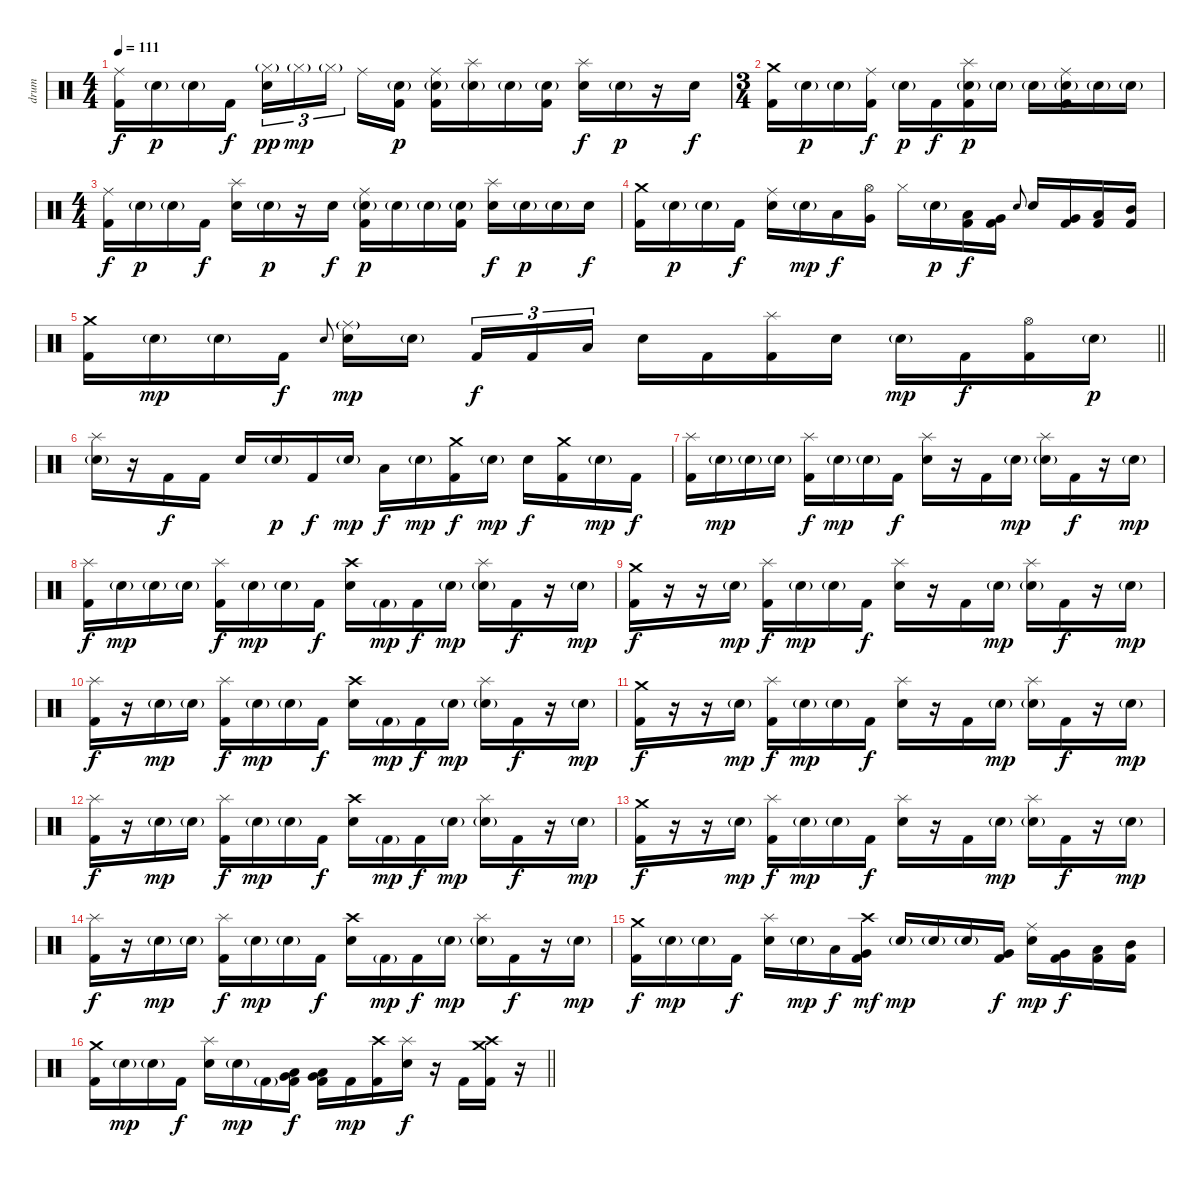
\track ("drum" "drum") {instrument percussion}
\staff {score}
\articulation defaults
\ts (4 4)
\tempo 111
\clef neutral
\ks c
("Ride (middle)" "Kick (hit) 2").16{dy f} "Electric Snare (hit)"{g}.16{dy p} "Electric Snare (hit)"{g}.16 "Kick (hit) 2".16{dy f} ("Hi-Hat (closed)"{g} "Electric Snare (hit)").16{tu (3 2) dy pp} "Hi-Hat (closed)"{g}.16{tu (3 2) dy mp} "Hi-Hat (closed)"{g}.16{tu (3 2) beam splitsecondary} "Ride (middle)".16 ("Electric Snare (hit)"{g} "Kick (hit) 2").16{dy p} ("Ride (middle)" "Electric Snare (hit)"{g} "Kick (hit) 2").16 ("Splash (hit)" "Electric Snare (hit)"{g}).16 "Electric Snare (hit)"{g}.16 ("Electric Snare (hit)"{g} "Kick (hit) 2").16 ("Splash (hit)" "Electric Snare (hit)").16{dy f} "Electric Snare (hit)"{g}.16{dy p} r.16 "Electric Snare (hit)".16{dy f} |
\ts (3 4)
("Crash medium (hit)" "Kick (hit) 2").16 "Electric Snare (hit)"{g}.16{dy p} "Electric Snare (hit)"{g}.16 ("Ride (middle)" "Kick (hit) 2").16{dy f} "Electric Snare (hit)"{g}.16{dy p} "Kick (hit) 2".16{dy f} ("Splash (hit)" "Electric Snare (hit)"{g} "Kick (hit) 2").16{dy p} "Electric Snare (hit)"{g}.16 "Electric Snare (hit)"{g}.16 ("Ride (middle)" "Electric Snare (hit)"{g} "Kick (hit) 2").16 "Electric Snare (hit)"{g}.16 "Electric Snare (hit)"{g}.16 |
\ts (4 4)
("Ride (middle)" "Kick (hit) 2").16{dy f} "Electric Snare (hit)"{g}.16{dy p} "Electric Snare (hit)"{g}.16 "Kick (hit) 2".16{dy f} ("Splash (hit)" "Electric Snare (hit)").16 "Electric Snare (hit)"{g}.16{dy p} r.16 "Electric Snare (hit)".16{dy f} ("Ride (middle)" "Electric Snare (hit)"{g} "Kick (hit) 2").16{dy p} "Electric Snare (hit)"{g}.16 "Electric Snare (hit)"{g}.16 ("Electric Snare (hit)"{g} "Kick (hit) 2").16 ("Splash (hit)" "Electric Snare (hit)").16{dy f} "Electric Snare (hit)"{g}.16{dy p} "Electric Snare (hit)"{g}.16 "Electric Snare (hit)".16{dy f} |
("Crash medium (hit)" "Kick (hit) 2").16 "Electric Snare (hit)"{g}.16{dy p} "Electric Snare (hit)"{g}.16 "Kick (hit) 2".16{dy f} ("Ride (middle)" "Electric Snare (hit)").16 "Electric Snare (hit)"{g}.16{dy mp} "Low Tom (hit)".16{dy f} ("Hi-Hat (open)" "Very Low Tom (hit)").16 "Hi-Hat (closed)".16 "Electric Snare (hit)"{g}.16{dy p} ("Low Tom (hit)" "Kick (hit) 2").16{dy f} ("Very Low Tom (hit)" "Kick (hit) 2").16 "Electric Snare (hit)".8{gr onbeat} "Electric Snare (hit)".16 ("Very Low Tom (hit)" "Kick (hit) 2").16 ("Low Tom (hit)" "Kick (hit) 2").16 ("Mid Tom (hit)" "Kick (hit) 2").16 |
\barLineRight lightlight
("Crash medium (hit)" "Kick (hit) 2").16 "Electric Snare (hit)"{g}.16{dy mp} "Electric Snare (hit)"{g}.16 "Kick (hit) 2".16{dy f} "Electric Snare (hit)".8{gr onbeat} ("Ride (middle)"{g} "Electric Snare (hit)").16{dy mp} "Electric Snare (hit)"{g}.16{beam splitsecondary} "Kick (hit) 2".16{tu (3 2) dy f} "Kick (hit) 2".16{tu (3 2)} "Low Tom (hit)".16{tu (3 2)} "Electric Snare (hit)".16 "Kick (hit) 2".16 ("Splash (hit)" "Kick (hit) 2").16 "Electric Snare (hit)".16 "Electric Snare (hit)"{g}.16{dy mp} "Kick (hit) 2".16{dy f} ("Hi-Hat (open)" "Kick (hit) 2").16 "Electric Snare (hit)"{g}.16{dy p} |
\section ("" "")
("Splash (hit)" "Electric Snare (hit)"{g}).16 r.16 "Kick (hit) 2".16{dy f} "Kick (hit) 2".16 "Electric Snare (hit)".16 "Electric Snare (hit)"{g}.16{dy p} "Kick (hit) 2".16{dy f} "Electric Snare (hit)"{g}.16{dy mp} "Low Tom (hit)".16{dy f} "Electric Snare (hit)"{g}.16{dy mp} ("Crash medium (hit)" "Kick (hit) 2").16{dy f} "Electric Snare (hit)"{g}.16{dy mp} "Electric Snare (hit)".16{dy f} ("Crash medium (hit)" "Kick (hit) 2").16 "Electric Snare (hit)"{g}.16{dy mp} "Kick (hit) 2".16{dy f} |
("Splash (hit)" "Kick (hit) 2").16 "Electric Snare (hit)"{g}.16{dy mp} "Electric Snare (hit)"{g}.16 "Electric Snare (hit)"{g}.16 ("Splash (hit)" "Kick (hit) 2").16{dy f} "Electric Snare (hit)"{g}.16{dy mp} "Electric Snare (hit)"{g}.16 "Kick (hit) 2".16{dy f} ("Splash (hit)" "Electric Snare (hit)").16 r.16 "Kick (hit) 2".16 "Electric Snare (hit)"{g}.16{dy mp} ("Splash (hit)" "Electric Snare (hit)"{g}).16 "Kick (hit) 2".16{dy f} r.16 "Electric Snare (hit)"{g}.16{dy mp} |
("Splash (hit)" "Kick (hit) 2").16{dy f} "Electric Snare (hit)"{g}.16{dy mp} "Electric Snare (hit)"{g}.16 "Electric Snare (hit)"{g}.16 ("Splash (hit)" "Kick (hit) 2").16{dy f} "Electric Snare (hit)"{g}.16{dy mp} "Electric Snare (hit)"{g}.16 "Kick (hit) 2".16{dy f} ("Crash high (hit)" "Electric Snare (hit)").16 "Kick (hit) 2"{g}.16{dy mp} "Kick (hit) 2".16{dy f} "Electric Snare (hit)"{g}.16{dy mp} ("Splash (hit)" "Electric Snare (hit)"{g}).16 "Kick (hit) 2".16{dy f} r.16 "Electric Snare (hit)"{g}.16{dy mp} |
("Crash medium (hit)" "Kick (hit) 2").16{dy f} r.16 r.16 "Electric Snare (hit)"{g}.16{dy mp} ("Splash (hit)" "Kick (hit) 2").16{dy f} "Electric Snare (hit)"{g}.16{dy mp} "Electric Snare (hit)"{g}.16 "Kick (hit) 2".16{dy f} ("Splash (hit)" "Electric Snare (hit)").16 r.16 "Kick (hit) 2".16 "Electric Snare (hit)"{g}.16{dy mp} ("Splash (hit)" "Electric Snare (hit)"{g}).16 "Kick (hit) 2".16{dy f} r.16 "Electric Snare (hit)"{g}.16{dy mp} |
("Splash (hit)" "Kick (hit) 2").16{dy f} r.16 "Electric Snare (hit)"{g}.16{dy mp} "Electric Snare (hit)"{g}.16 ("Splash (hit)" "Kick (hit) 2").16{dy f} "Electric Snare (hit)"{g}.16{dy mp} "Electric Snare (hit)"{g}.16 "Kick (hit) 2".16{dy f} ("Crash high (hit)" "Electric Snare (hit)").16 "Kick (hit) 2"{g}.16{dy mp} "Kick (hit) 2".16{dy f} "Electric Snare (hit)"{g}.16{dy mp} ("Splash (hit)" "Electric Snare (hit)"{g}).16 "Kick (hit) 2".16{dy f} r.16 "Electric Snare (hit)"{g}.16{dy mp} |
("Crash medium (hit)" "Kick (hit) 2").16{dy f} r.16 r.16 "Electric Snare (hit)"{g}.16{dy mp} ("Splash (hit)" "Kick (hit) 2").16{dy f} "Electric Snare (hit)"{g}.16{dy mp} "Electric Snare (hit)"{g}.16 "Kick (hit) 2".16{dy f} ("Splash (hit)" "Electric Snare (hit)").16 r.16 "Kick (hit) 2".16 "Electric Snare (hit)"{g}.16{dy mp} ("Splash (hit)" "Electric Snare (hit)"{g}).16 "Kick (hit) 2".16{dy f} r.16 "Electric Snare (hit)"{g}.16{dy mp} |
("Splash (hit)" "Kick (hit) 2").16{dy f} r.16 "Electric Snare (hit)"{g}.16{dy mp} "Electric Snare (hit)"{g}.16 ("Splash (hit)" "Kick (hit) 2").16{dy f} "Electric Snare (hit)"{g}.16{dy mp} "Electric Snare (hit)"{g}.16 "Kick (hit) 2".16{dy f} ("Crash high (hit)" "Electric Snare (hit)").16 "Kick (hit) 2"{g}.16{dy mp} "Kick (hit) 2".16{dy f} "Electric Snare (hit)"{g}.16{dy mp} ("Splash (hit)" "Electric Snare (hit)"{g}).16 "Kick (hit) 2".16{dy f} r.16 "Electric Snare (hit)"{g}.16{dy mp} |
("Crash medium (hit)" "Kick (hit) 2").16{dy f} r.16 r.16 "Electric Snare (hit)"{g}.16{dy mp} ("Splash (hit)" "Kick (hit) 2").16{dy f} "Electric Snare (hit)"{g}.16{dy mp} "Electric Snare (hit)"{g}.16 "Kick (hit) 2".16{dy f} ("Splash (hit)" "Electric Snare (hit)").16 r.16 "Kick (hit) 2".16 "Electric Snare (hit)"{g}.16{dy mp} ("Splash (hit)" "Electric Snare (hit)"{g}).16 "Kick (hit) 2".16{dy f} r.16 "Electric Snare (hit)"{g}.16{dy mp} |
("Splash (hit)" "Kick (hit) 2").16{dy f} r.16 "Electric Snare (hit)"{g}.16{dy mp} "Electric Snare (hit)"{g}.16 ("Splash (hit)" "Kick (hit) 2").16{dy f} "Electric Snare (hit)"{g}.16{dy mp} "Electric Snare (hit)"{g}.16 "Kick (hit) 2".16{dy f} ("Crash high (hit)" "Electric Snare (hit)").16 "Kick (hit) 2"{g}.16{dy mp} "Kick (hit) 2".16{dy f} "Electric Snare (hit)"{g}.16{dy mp} ("Splash (hit)" "Electric Snare (hit)"{g}).16 "Kick (hit) 2".16{dy f} r.16 "Electric Snare (hit)"{g}.16{dy mp} |
("Crash medium (hit)" "Kick (hit) 2").16{dy f} "Electric Snare (hit)"{g}.16{dy mp} "Electric Snare (hit)"{g}.16 "Kick (hit) 2".16{dy f} ("Splash (hit)" "Electric Snare (hit)").16 "Electric Snare (hit)"{g}.16{dy mp} "Low Tom (hit)".16{dy f} ("Crash high (hit)" "Very Low Tom (hit)" "Kick (hit) 2").16{dy mf} "Electric Snare (hit)"{g}.16{dy mp} "Electric Snare (hit)"{g}.16 "Electric Snare (hit)"{g}.16 ("Very Low Tom (hit)" "Kick (hit) 2").16{dy f} ("Ride (middle)" "Electric Snare (hit)").16{dy mp} ("Very Low Tom (hit)" "Kick (hit) 2").16{dy f} ("Low Tom (hit)" "Kick (hit) 2").16 ("Mid Tom (hit)" "Kick (hit) 2").16 |
\barLineRight lightlight
("Crash medium (hit)" "Kick (hit) 2").16 "Electric Snare (hit)"{g}.16{dy mp} "Electric Snare (hit)"{g}.16 "Kick (hit) 2".16{dy f} ("Splash (hit)" "Electric Snare (hit)").16 "Electric Snare (hit)"{g}.16{dy mp} "Kick (hit) 2"{g}.16 ("Very Low Tom (hit)" "Low Tom (hit)" "Kick (hit) 2").16{dy f} ("Very Low Tom (hit)" "Low Floor Tom (hit)" "Kick (hit) 2").16 "Kick (hit) 2".16{dy mp} ("Crash high (hit)" "Kick (hit) 2").16 ("Splash (hit)" "Electric Snare (hit)").16{dy f} r.16 "Kick (hit) 2".16 ("Crash high (hit)" "Crash medium (hit)" "Kick (hit) 2").16 r.16
